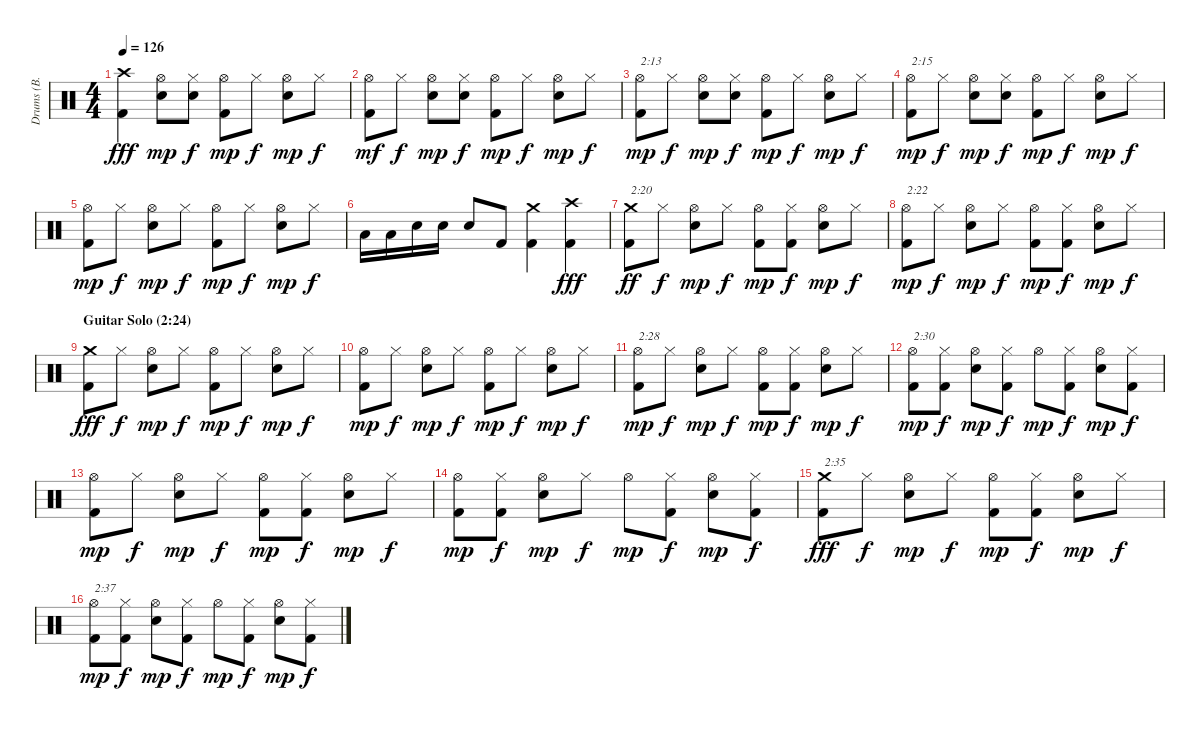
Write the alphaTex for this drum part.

\track ("Drums (B. Downey)" "Drums (B. ") {instrument percussion}
\staff {score}
\articulation defaults
\ts (4 4)
\tempo 126
\clef neutral
\ks c
("Crash high (hit)" "Kick (hit) 2").4{dy fff} ("Hi-Hat (open)" "Electric Snare (hit)").8{dy mp} ("Hi-Hat (closed)" "Electric Snare (hit)").8{dy f} ("Hi-Hat (open)" "Kick (hit) 2").8{dy mp} "Hi-Hat (closed)".8{dy f} ("Hi-Hat (open)" "Electric Snare (hit)").8{dy mp} "Hi-Hat (closed)".8{dy f} |
("Hi-Hat (open)" "Kick (hit) 2").8{dy mf} "Hi-Hat (closed)".8{dy f} ("Hi-Hat (open)" "Electric Snare (hit)").8{dy mp} ("Hi-Hat (closed)" "Electric Snare (hit)").8{dy f} ("Hi-Hat (open)" "Kick (hit) 2").8{dy mp} "Hi-Hat (closed)".8{dy f} ("Hi-Hat (open)" "Electric Snare (hit)").8{dy mp} "Hi-Hat (closed)".8{dy f} |
("Hi-Hat (open)" "Kick (hit) 2").8{txt "2:13" dy mp} "Hi-Hat (closed)".8{dy f} ("Hi-Hat (open)" "Electric Snare (hit)").8{dy mp} ("Hi-Hat (closed)" "Electric Snare (hit)").8{dy f} ("Hi-Hat (open)" "Kick (hit) 2").8{dy mp} "Hi-Hat (closed)".8{dy f} ("Hi-Hat (open)" "Electric Snare (hit)").8{dy mp} "Hi-Hat (closed)".8{dy f} |
("Hi-Hat (open)" "Kick (hit) 2").8{txt "2:15" dy mp} "Hi-Hat (closed)".8{dy f} ("Hi-Hat (open)" "Electric Snare (hit)").8{dy mp} ("Hi-Hat (closed)" "Electric Snare (hit)").8{dy f} ("Hi-Hat (open)" "Kick (hit) 2").8{dy mp} "Hi-Hat (closed)".8{dy f} ("Hi-Hat (open)" "Electric Snare (hit)").8{dy mp} "Hi-Hat (closed)".8{dy f} |
("Hi-Hat (open)" "Kick (hit) 2").8{dy mp} "Hi-Hat (closed)".8{dy f} ("Hi-Hat (open)" "Electric Snare (hit)").8{dy mp} "Hi-Hat (closed)".8{dy f} ("Hi-Hat (open)" "Kick (hit) 2").8{dy mp} "Hi-Hat (closed)".8{dy f} ("Hi-Hat (open)" "Electric Snare (hit)").8{dy mp} "Hi-Hat (closed)".8{dy f} |
"Low Tom (hit)".16 "Low Tom (hit)".16 "Electric Snare (hit)".16 "Electric Snare (hit)".16 "Electric Snare (hit)".8 "Kick (hit) 2".8 ("Crash medium (hit)" "Kick (hit) 2").4{balance 13} ("Crash high (hit)" "Kick (hit) 2").4{dy fff balance 3} |
("Crash medium (hit)" "Kick (hit) 2").8{txt "2:20" dy ff balance 8} "Hi-Hat (closed)".8{dy f} ("Hi-Hat (open)" "Electric Snare (hit)").8{dy mp} "Hi-Hat (closed)".8{dy f} ("Hi-Hat (open)" "Kick (hit) 2").8{dy mp} ("Hi-Hat (closed)" "Kick (hit) 2").8{dy f} ("Hi-Hat (open)" "Electric Snare (hit)").8{dy mp} "Hi-Hat (closed)".8{dy f} |
("Hi-Hat (open)" "Kick (hit) 2").8{txt "2:22" dy mp} "Hi-Hat (closed)".8{dy f} ("Hi-Hat (open)" "Electric Snare (hit)").8{dy mp} "Hi-Hat (closed)".8{dy f} ("Hi-Hat (open)" "Kick (hit) 2").8{dy mp} ("Hi-Hat (closed)" "Kick (hit) 2").8{dy f} ("Hi-Hat (open)" "Electric Snare (hit)").8{dy mp} "Hi-Hat (closed)".8{dy f} |
\section ("" "Guitar Solo (2:24)")
("Crash medium (hit)" "Kick (hit) 2").8{dy fff} "Hi-Hat (closed)".8{dy f} ("Hi-Hat (open)" "Electric Snare (hit)").8{dy mp} "Hi-Hat (closed)".8{dy f} ("Hi-Hat (open)" "Kick (hit) 2").8{dy mp} "Hi-Hat (closed)".8{dy f} ("Hi-Hat (open)" "Electric Snare (hit)").8{dy mp} "Hi-Hat (closed)".8{dy f} |
("Hi-Hat (open)" "Kick (hit) 2").8{dy mp} "Hi-Hat (closed)".8{dy f} ("Hi-Hat (open)" "Electric Snare (hit)").8{dy mp} "Hi-Hat (closed)".8{dy f} ("Hi-Hat (open)" "Kick (hit) 2").8{dy mp} "Hi-Hat (closed)".8{dy f} ("Hi-Hat (open)" "Electric Snare (hit)").8{dy mp} "Hi-Hat (closed)".8{dy f} |
("Hi-Hat (open)" "Kick (hit) 2").8{txt "2:28" dy mp} "Hi-Hat (closed)".8{dy f} ("Hi-Hat (open)" "Electric Snare (hit)").8{dy mp} "Hi-Hat (closed)".8{dy f} ("Hi-Hat (open)" "Kick (hit) 2").8{dy mp} ("Hi-Hat (closed)" "Kick (hit) 2").8{dy f} ("Hi-Hat (open)" "Electric Snare (hit)").8{dy mp} "Hi-Hat (closed)".8{dy f} |
("Hi-Hat (open)" "Kick (hit) 2").8{txt "2:30" dy mp} ("Hi-Hat (closed)" "Kick (hit) 2").8{dy f} ("Hi-Hat (open)" "Electric Snare (hit)").8{dy mp} ("Hi-Hat (closed)" "Kick (hit) 2").8{dy f} "Hi-Hat (open)".8{dy mp} ("Hi-Hat (closed)" "Kick (hit) 2").8{dy f} ("Hi-Hat (open)" "Electric Snare (hit)").8{dy mp} ("Hi-Hat (closed)" "Kick (hit) 2").8{dy f} |
("Hi-Hat (open)" "Kick (hit) 2").8{dy mp} "Hi-Hat (closed)".8{dy f} ("Hi-Hat (open)" "Electric Snare (hit)").8{dy mp} "Hi-Hat (closed)".8{dy f} ("Hi-Hat (open)" "Kick (hit) 2").8{dy mp} ("Hi-Hat (closed)" "Kick (hit) 2").8{dy f} ("Hi-Hat (open)" "Electric Snare (hit)").8{dy mp} "Hi-Hat (closed)".8{dy f} |
("Hi-Hat (open)" "Kick (hit) 2").8{dy mp} ("Hi-Hat (closed)" "Kick (hit) 2").8{dy f} ("Hi-Hat (open)" "Electric Snare (hit)").8{dy mp} "Hi-Hat (closed)".8{dy f} "Hi-Hat (open)".8{dy mp} ("Hi-Hat (closed)" "Kick (hit) 2").8{dy f} ("Hi-Hat (open)" "Electric Snare (hit)").8{dy mp} ("Hi-Hat (closed)" "Kick (hit) 2").8{dy f} |
("Crash medium (hit)" "Kick (hit) 2").8{txt "2:35" dy fff} "Hi-Hat (closed)".8{dy f} ("Hi-Hat (open)" "Electric Snare (hit)").8{dy mp} "Hi-Hat (closed)".8{dy f} ("Hi-Hat (open)" "Kick (hit) 2").8{dy mp} ("Hi-Hat (closed)" "Kick (hit) 2").8{dy f} ("Hi-Hat (open)" "Electric Snare (hit)").8{dy mp} "Hi-Hat (closed)".8{dy f} |
("Hi-Hat (open)" "Kick (hit) 2").8{txt "2:37" dy mp} ("Hi-Hat (closed)" "Kick (hit) 2").8{dy f} ("Hi-Hat (open)" "Electric Snare (hit)").8{dy mp} ("Hi-Hat (closed)" "Kick (hit) 2").8{dy f} "Hi-Hat (open)".8{dy mp} ("Hi-Hat (closed)" "Kick (hit) 2").8{dy f} ("Hi-Hat (open)" "Electric Snare (hit)").8{dy mp} ("Hi-Hat (closed)" "Kick (hit) 2").8{dy f}
